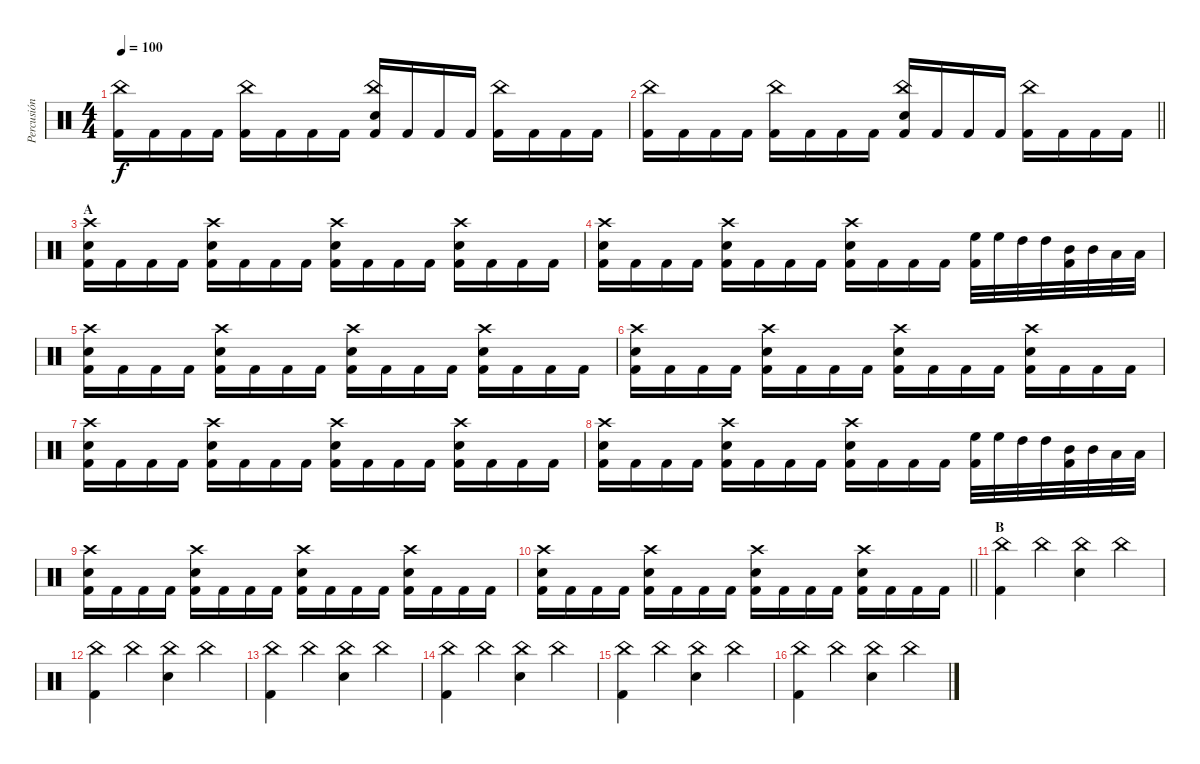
\track ("Percusión" "Percusión") {instrument percussion bank 1}
\staff {score}
\articulation defaults
\ts (4 4)
\tempo 100
\clef neutral
\ks c
("Kick (hit) 2" "China (hit)").16{dy f} "Kick (hit) 2".16 "Kick (hit) 2".16 "Kick (hit) 2".16 ("Kick (hit) 2" "China (hit)").16 "Kick (hit) 2".16 "Kick (hit) 2".16 "Kick (hit) 2".16 ("Kick (hit) 2" "China (hit)" "Snare (hit) 2").16 "Kick (hit) 2".16 "Kick (hit) 2".16 "Kick (hit) 2".16 ("Kick (hit) 2" "China (hit)").16 "Kick (hit) 2".16 "Kick (hit) 2".16 "Kick (hit) 2".16 |
\barLineRight lightlight
("Kick (hit) 2" "China (hit)").16 "Kick (hit) 2".16 "Kick (hit) 2".16 "Kick (hit) 2".16 ("Kick (hit) 2" "China (hit)").16 "Kick (hit) 2".16 "Kick (hit) 2".16 "Kick (hit) 2".16 ("Kick (hit) 2" "China (hit)" "Snare (hit) 2").16 "Kick (hit) 2".16 "Kick (hit) 2".16 "Kick (hit) 2".16 ("Kick (hit) 2" "China (hit)").16 "Kick (hit) 2".16 "Kick (hit) 2".16 "Kick (hit) 2".16 |
\section ("" "A")
("Kick (hit) 2" "Crash high (hit)" "Snare (hit) 2").16 "Kick (hit) 2".16 "Kick (hit) 2".16 "Kick (hit) 2".16 ("Kick (hit) 2" "Crash high (hit)" "Snare (hit) 2").16 "Kick (hit) 2".16 "Kick (hit) 2".16 "Kick (hit) 2".16 ("Kick (hit) 2" "Crash high (hit)" "Snare (hit) 2").16 "Kick (hit) 2".16 "Kick (hit) 2".16 "Kick (hit) 2".16 ("Crash high (hit)" "Kick (hit) 2" "Snare (hit) 2").16 "Kick (hit) 2".16 "Kick (hit) 2".16 "Kick (hit) 2".16 |
("Kick (hit) 2" "Crash high (hit)" "Snare (hit) 2").16 "Kick (hit) 2".16 "Kick (hit) 2".16 "Kick (hit) 2".16 ("Kick (hit) 2" "Crash high (hit)" "Snare (hit) 2").16 "Kick (hit) 2".16 "Kick (hit) 2".16 "Kick (hit) 2".16 ("Kick (hit) 2" "Crash high (hit)" "Snare (hit) 2").16 "Kick (hit) 2".16 "Kick (hit) 2".16 "Kick (hit) 2".16 ("High Floor Tom (hit)" "Kick (hit) 2").32 "High Floor Tom (hit)".32 "High Tom (hit)".32 "High Tom (hit)".32 ("Mid Tom (hit)" "Kick (hit) 2").32 "Mid Tom (hit)".32 "Low Tom (hit)".32 "Low Tom (hit)".32 |
("Kick (hit) 2" "Crash high (hit)" "Snare (hit) 2").16 "Kick (hit) 2".16 "Kick (hit) 2".16 "Kick (hit) 2".16 ("Kick (hit) 2" "Crash high (hit)" "Snare (hit) 2").16 "Kick (hit) 2".16 "Kick (hit) 2".16 "Kick (hit) 2".16 ("Kick (hit) 2" "Crash high (hit)" "Snare (hit) 2").16 "Kick (hit) 2".16 "Kick (hit) 2".16 "Kick (hit) 2".16 ("Crash high (hit)" "Kick (hit) 2" "Snare (hit) 2").16 "Kick (hit) 2".16 "Kick (hit) 2".16 "Kick (hit) 2".16 |
("Kick (hit) 2" "Crash high (hit)" "Snare (hit) 2").16 "Kick (hit) 2".16 "Kick (hit) 2".16 "Kick (hit) 2".16 ("Kick (hit) 2" "Crash high (hit)" "Snare (hit) 2").16 "Kick (hit) 2".16 "Kick (hit) 2".16 "Kick (hit) 2".16 ("Kick (hit) 2" "Crash high (hit)" "Snare (hit) 2").16 "Kick (hit) 2".16 "Kick (hit) 2".16 "Kick (hit) 2".16 ("Crash high (hit)" "Kick (hit) 2" "Snare (hit) 2").16 "Kick (hit) 2".16 "Kick (hit) 2".16 "Kick (hit) 2".16 |
("Kick (hit) 2" "Crash high (hit)" "Snare (hit) 2").16 "Kick (hit) 2".16 "Kick (hit) 2".16 "Kick (hit) 2".16 ("Kick (hit) 2" "Crash high (hit)" "Snare (hit) 2").16 "Kick (hit) 2".16 "Kick (hit) 2".16 "Kick (hit) 2".16 ("Kick (hit) 2" "Crash high (hit)" "Snare (hit) 2").16 "Kick (hit) 2".16 "Kick (hit) 2".16 "Kick (hit) 2".16 ("Crash high (hit)" "Kick (hit) 2" "Snare (hit) 2").16 "Kick (hit) 2".16 "Kick (hit) 2".16 "Kick (hit) 2".16 |
("Kick (hit) 2" "Crash high (hit)" "Snare (hit) 2").16 "Kick (hit) 2".16 "Kick (hit) 2".16 "Kick (hit) 2".16 ("Kick (hit) 2" "Crash high (hit)" "Snare (hit) 2").16 "Kick (hit) 2".16 "Kick (hit) 2".16 "Kick (hit) 2".16 ("Kick (hit) 2" "Crash high (hit)" "Snare (hit) 2").16 "Kick (hit) 2".16 "Kick (hit) 2".16 "Kick (hit) 2".16 ("High Floor Tom (hit)" "Kick (hit) 2").32 "High Floor Tom (hit)".32 "High Tom (hit)".32 "High Tom (hit)".32 ("Mid Tom (hit)" "Kick (hit) 2").32 "Mid Tom (hit)".32 "Low Tom (hit)".32 "Low Tom (hit)".32 |
("Kick (hit) 2" "Crash high (hit)" "Snare (hit) 2").16 "Kick (hit) 2".16 "Kick (hit) 2".16 "Kick (hit) 2".16 ("Kick (hit) 2" "Crash high (hit)" "Snare (hit) 2").16 "Kick (hit) 2".16 "Kick (hit) 2".16 "Kick (hit) 2".16 ("Kick (hit) 2" "Crash high (hit)" "Snare (hit) 2").16 "Kick (hit) 2".16 "Kick (hit) 2".16 "Kick (hit) 2".16 ("Crash high (hit)" "Kick (hit) 2" "Snare (hit) 2").16 "Kick (hit) 2".16 "Kick (hit) 2".16 "Kick (hit) 2".16 |
\barLineRight lightlight
("Kick (hit) 2" "Crash high (hit)" "Snare (hit) 2").16 "Kick (hit) 2".16 "Kick (hit) 2".16 "Kick (hit) 2".16 ("Kick (hit) 2" "Crash high (hit)" "Snare (hit) 2").16 "Kick (hit) 2".16 "Kick (hit) 2".16 "Kick (hit) 2".16 ("Kick (hit) 2" "Crash high (hit)" "Snare (hit) 2").16 "Kick (hit) 2".16 "Kick (hit) 2".16 "Kick (hit) 2".16 ("Crash high (hit)" "Kick (hit) 2" "Snare (hit) 2").16 "Kick (hit) 2".16 "Kick (hit) 2".16 "Kick (hit) 2".16 |
\section ("" "B")
("China (hit)" "Kick (hit) 2").4 "China (hit)".4 ("China (hit)" "Snare (hit) 2").4 "China (hit)".4 |
("China (hit)" "Kick (hit) 2").4 "China (hit)".4 ("China (hit)" "Snare (hit) 2").4 "China (hit)".4 |
("China (hit)" "Kick (hit) 2").4 "China (hit)".4 ("China (hit)" "Snare (hit) 2").4 "China (hit)".4 |
("China (hit)" "Kick (hit) 2").4 "China (hit)".4 ("China (hit)" "Snare (hit) 2").4 "China (hit)".4 |
("China (hit)" "Kick (hit) 2").4 "China (hit)".4 ("China (hit)" "Snare (hit) 2").4 "China (hit)".4 |
("China (hit)" "Kick (hit) 2").4 "China (hit)".4 ("China (hit)" "Snare (hit) 2").4 "China (hit)".4
